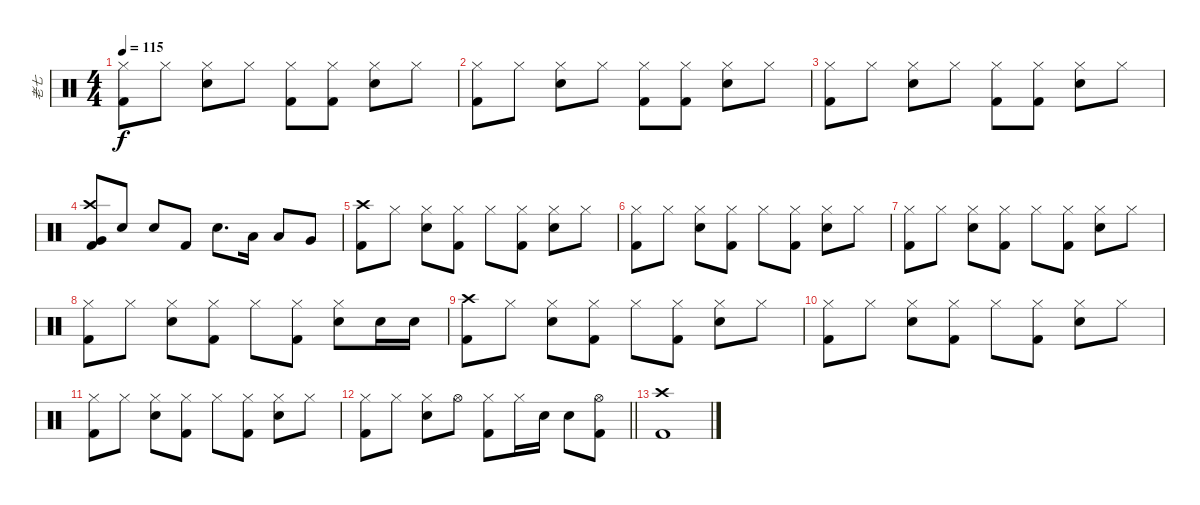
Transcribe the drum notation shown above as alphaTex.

\track ("老七" "老七") {instrument percussion}
\staff {score}
\articulation defaults
\ts (4 4)
\tempo 115
\clef neutral
\ks c
("Hi-Hat (closed)" "Kick (hit) 2").8{dy f} "Hi-Hat (closed)".8 ("Hi-Hat (closed)" "Electric Snare (hit)").8 "Hi-Hat (closed)".8 ("Hi-Hat (closed)" "Kick (hit) 2").8 ("Hi-Hat (closed)" "Kick (hit) 2").8 ("Hi-Hat (closed)" "Electric Snare (hit)").8 "Hi-Hat (closed)".8 |
("Hi-Hat (closed)" "Kick (hit) 2").8 "Hi-Hat (closed)".8 ("Hi-Hat (closed)" "Electric Snare (hit)").8 "Hi-Hat (closed)".8 ("Hi-Hat (closed)" "Kick (hit) 2").8 ("Hi-Hat (closed)" "Kick (hit) 2").8 ("Hi-Hat (closed)" "Electric Snare (hit)").8 "Hi-Hat (closed)".8 |
("Hi-Hat (closed)" "Kick (hit) 2").8 "Hi-Hat (closed)".8 ("Hi-Hat (closed)" "Electric Snare (hit)").8 "Hi-Hat (closed)".8 ("Hi-Hat (closed)" "Kick (hit) 2").8 ("Hi-Hat (closed)" "Kick (hit) 2").8 ("Hi-Hat (closed)" "Electric Snare (hit)").8 "Hi-Hat (closed)".8 |
("Crash high (hit)" "Very Low Tom (hit)" "Kick (hit) 2").8 "Electric Snare (hit)".8 "Electric Snare (hit)".8 "Kick (hit) 2".8 "Electric Snare (hit)".8{d} "Low Tom (hit)".16 "Low Tom (hit)".8 "Very Low Tom (hit)".8 |
("Crash high (hit)" "Kick (hit) 2").8 "Hi-Hat (closed)".8 ("Hi-Hat (closed)" "Electric Snare (hit)").8 ("Hi-Hat (closed)" "Kick (hit) 2").8 "Hi-Hat (closed)".8 ("Hi-Hat (closed)" "Kick (hit) 2").8 ("Hi-Hat (closed)" "Electric Snare (hit)").8 "Hi-Hat (closed)".8 |
("Hi-Hat (closed)" "Kick (hit) 2").8 "Hi-Hat (closed)".8 ("Hi-Hat (closed)" "Electric Snare (hit)").8 ("Hi-Hat (closed)" "Kick (hit) 2").8 "Hi-Hat (closed)".8 ("Hi-Hat (closed)" "Kick (hit) 2").8 ("Hi-Hat (closed)" "Electric Snare (hit)").8 "Hi-Hat (closed)".8 |
("Hi-Hat (closed)" "Kick (hit) 2").8 "Hi-Hat (closed)".8 ("Hi-Hat (closed)" "Electric Snare (hit)").8 ("Hi-Hat (closed)" "Kick (hit) 2").8 "Hi-Hat (closed)".8 ("Hi-Hat (closed)" "Kick (hit) 2").8 ("Hi-Hat (closed)" "Electric Snare (hit)").8 "Hi-Hat (closed)".8 |
("Hi-Hat (closed)" "Kick (hit) 2").8 "Hi-Hat (closed)".8 ("Hi-Hat (closed)" "Electric Snare (hit)").8 ("Hi-Hat (closed)" "Kick (hit) 2").8 "Hi-Hat (closed)".8 ("Hi-Hat (closed)" "Kick (hit) 2").8 ("Hi-Hat (closed)" "Electric Snare (hit)").8 "Electric Snare (hit)".16 "Electric Snare (hit)".16 |
("Crash high (hit)" "Kick (hit) 2").8 "Hi-Hat (closed)".8 ("Hi-Hat (closed)" "Electric Snare (hit)").8 ("Hi-Hat (closed)" "Kick (hit) 2").8 "Hi-Hat (closed)".8 ("Hi-Hat (closed)" "Kick (hit) 2").8 ("Hi-Hat (closed)" "Electric Snare (hit)").8 "Hi-Hat (closed)".8 |
("Hi-Hat (closed)" "Kick (hit) 2").8 "Hi-Hat (closed)".8 ("Hi-Hat (closed)" "Electric Snare (hit)").8 ("Hi-Hat (closed)" "Kick (hit) 2").8 "Hi-Hat (closed)".8 ("Hi-Hat (closed)" "Kick (hit) 2").8 ("Hi-Hat (closed)" "Electric Snare (hit)").8 "Hi-Hat (closed)".8 |
("Hi-Hat (closed)" "Kick (hit) 2").8 "Hi-Hat (closed)".8 ("Hi-Hat (closed)" "Electric Snare (hit)").8 ("Hi-Hat (closed)" "Kick (hit) 2").8 "Hi-Hat (closed)".8 ("Hi-Hat (closed)" "Kick (hit) 2").8 ("Hi-Hat (closed)" "Electric Snare (hit)").8 "Hi-Hat (closed)".8 |
\barLineRight lightlight
("Hi-Hat (closed)" "Kick (hit) 2").8 "Hi-Hat (closed)".8 ("Hi-Hat (closed)" "Electric Snare (hit)").8 "Hi-Hat (open)".8 ("Hi-Hat (closed)" "Kick (hit) 2").8 "Hi-Hat (closed)".16 "Electric Snare (hit)".16 "Electric Snare (hit)".8 ("Hi-Hat (open)" "Kick (hit) 2").8 |
("Crash high (hit)" "Kick (hit) 2").1
